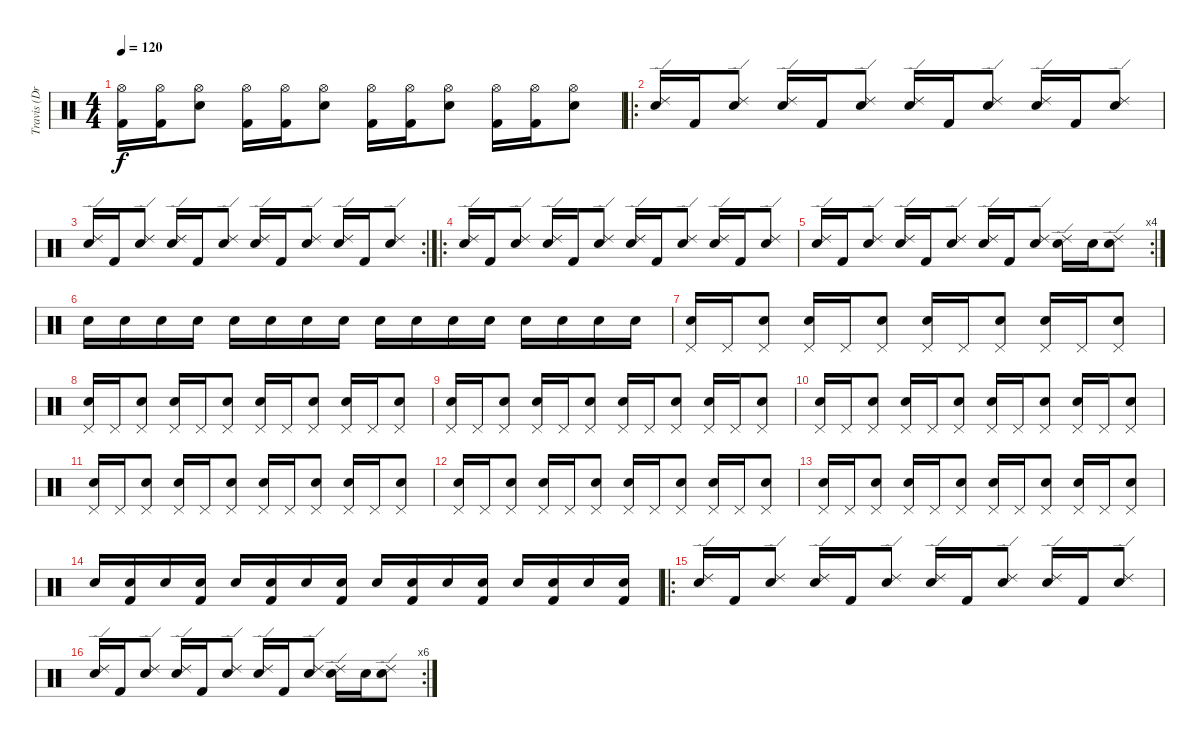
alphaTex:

\track ("Travis (Drum)" "Travis (Dr") {instrument percussion}
\staff {score}
\articulation defaults
\ts (4 4)
\tempo 120
\clef neutral
\ks c
("Hi-Hat (open)" "Kick (hit) 2").16{dy f} ("Hi-Hat (open)" "Kick (hit) 2").16 ("Hi-Hat (open)" "Electric Snare (hit)").8 ("Hi-Hat (open)" "Kick (hit) 2").16 ("Hi-Hat (open)" "Kick (hit) 2").16 ("Hi-Hat (open)" "Electric Snare (hit)").8 ("Hi-Hat (open)" "Kick (hit) 2").16 ("Hi-Hat (open)" "Kick (hit) 2").16 ("Hi-Hat (open)" "Electric Snare (hit)").8 ("Hi-Hat (open)" "Kick (hit) 2").16 ("Hi-Hat (open)" "Kick (hit) 2").16 ("Hi-Hat (open)" "Electric Snare (hit)").8 |
\ro
("Ride (edge) 2" "Electric Snare (hit)").16 "Kick (hit) 2".16 ("Ride (edge) 2" "Electric Snare (hit)").8 ("Ride (edge) 2" "Electric Snare (hit)").16 "Kick (hit) 2".16 ("Ride (edge) 2" "Electric Snare (hit)").8 ("Ride (edge) 2" "Electric Snare (hit)").16 "Kick (hit) 2".16 ("Ride (edge) 2" "Electric Snare (hit)").8 ("Ride (edge) 2" "Electric Snare (hit)").16 "Kick (hit) 2".16 ("Ride (edge) 2" "Electric Snare (hit)").8 |
\rc 2
("Ride (edge) 2" "Electric Snare (hit)").16 "Kick (hit) 2".16 ("Ride (edge) 2" "Electric Snare (hit)").8 ("Ride (edge) 2" "Electric Snare (hit)").16 "Kick (hit) 2".16 ("Ride (edge) 2" "Electric Snare (hit)").8 ("Ride (edge) 2" "Electric Snare (hit)").16 "Kick (hit) 2".16 ("Ride (edge) 2" "Electric Snare (hit)").8 ("Ride (edge) 2" "Electric Snare (hit)").16 "Kick (hit) 2".16 ("Ride (edge) 2" "Electric Snare (hit)").8 |
\ro
("Ride (edge) 2" "Electric Snare (hit)").16 "Kick (hit) 2".16 ("Ride (edge) 2" "Electric Snare (hit)").8 ("Ride (edge) 2" "Electric Snare (hit)").16 "Kick (hit) 2".16 ("Ride (edge) 2" "Electric Snare (hit)").8 ("Ride (edge) 2" "Electric Snare (hit)").16 "Kick (hit) 2".16 ("Ride (edge) 2" "Electric Snare (hit)").8 ("Ride (edge) 2" "Electric Snare (hit)").16 "Kick (hit) 2".16 ("Ride (edge) 2" "Electric Snare (hit)").8 |
\rc 4
("Ride (edge) 2" "Electric Snare (hit)").16 "Kick (hit) 2".16 ("Ride (edge) 2" "Electric Snare (hit)").8 ("Ride (edge) 2" "Electric Snare (hit)").16 "Kick (hit) 2".16 ("Ride (edge) 2" "Electric Snare (hit)").8 ("Ride (edge) 2" "Electric Snare (hit)").16 "Kick (hit) 2".16 ("Ride (edge) 2" "Electric Snare (hit)").8 ("Ride (edge) 2" "Electric Snare (hit)").16 "Electric Snare (hit)".16 ("Ride (edge) 2" "Electric Snare (hit)").8 |
"Electric Snare (hit)".16 "Electric Snare (hit)".16 "Electric Snare (hit)".16 "Electric Snare (hit)".16 "Electric Snare (hit)".16 "Electric Snare (hit)".16 "Electric Snare (hit)".16 "Electric Snare (hit)".16 "Electric Snare (hit)".16 "Electric Snare (hit)".16 "Electric Snare (hit)".16 "Electric Snare (hit)".16 "Electric Snare (hit)".16 "Electric Snare (hit)".16 "Electric Snare (hit)".16 "Electric Snare (hit)".16 |
("Pedal Hi-Hat (hit)" "Electric Snare (hit)").16 "Pedal Hi-Hat (hit)".16 ("Pedal Hi-Hat (hit)" "Electric Snare (hit)").8 ("Pedal Hi-Hat (hit)" "Electric Snare (hit)").16 "Pedal Hi-Hat (hit)".16 ("Pedal Hi-Hat (hit)" "Electric Snare (hit)").8 ("Pedal Hi-Hat (hit)" "Electric Snare (hit)").16 "Pedal Hi-Hat (hit)".16 ("Pedal Hi-Hat (hit)" "Electric Snare (hit)").8 ("Pedal Hi-Hat (hit)" "Electric Snare (hit)").16 "Pedal Hi-Hat (hit)".16 ("Pedal Hi-Hat (hit)" "Electric Snare (hit)").8 |
("Pedal Hi-Hat (hit)" "Electric Snare (hit)").16 "Pedal Hi-Hat (hit)".16 ("Pedal Hi-Hat (hit)" "Electric Snare (hit)").8 ("Pedal Hi-Hat (hit)" "Electric Snare (hit)").16 "Pedal Hi-Hat (hit)".16 ("Pedal Hi-Hat (hit)" "Electric Snare (hit)").8 ("Pedal Hi-Hat (hit)" "Electric Snare (hit)").16 "Pedal Hi-Hat (hit)".16 ("Pedal Hi-Hat (hit)" "Electric Snare (hit)").8 ("Pedal Hi-Hat (hit)" "Electric Snare (hit)").16 "Pedal Hi-Hat (hit)".16 ("Pedal Hi-Hat (hit)" "Electric Snare (hit)").8 |
("Pedal Hi-Hat (hit)" "Electric Snare (hit)").16 "Pedal Hi-Hat (hit)".16 ("Pedal Hi-Hat (hit)" "Electric Snare (hit)").8 ("Pedal Hi-Hat (hit)" "Electric Snare (hit)").16 "Pedal Hi-Hat (hit)".16 ("Pedal Hi-Hat (hit)" "Electric Snare (hit)").8 ("Pedal Hi-Hat (hit)" "Electric Snare (hit)").16 "Pedal Hi-Hat (hit)".16 ("Pedal Hi-Hat (hit)" "Electric Snare (hit)").8 ("Pedal Hi-Hat (hit)" "Electric Snare (hit)").16 "Pedal Hi-Hat (hit)".16 ("Pedal Hi-Hat (hit)" "Electric Snare (hit)").8 |
("Pedal Hi-Hat (hit)" "Electric Snare (hit)").16 "Pedal Hi-Hat (hit)".16 ("Pedal Hi-Hat (hit)" "Electric Snare (hit)").8 ("Pedal Hi-Hat (hit)" "Electric Snare (hit)").16 "Pedal Hi-Hat (hit)".16 ("Pedal Hi-Hat (hit)" "Electric Snare (hit)").8 ("Pedal Hi-Hat (hit)" "Electric Snare (hit)").16 "Pedal Hi-Hat (hit)".16 ("Pedal Hi-Hat (hit)" "Electric Snare (hit)").8 ("Pedal Hi-Hat (hit)" "Electric Snare (hit)").16 "Pedal Hi-Hat (hit)".16 ("Pedal Hi-Hat (hit)" "Electric Snare (hit)").8 |
("Pedal Hi-Hat (hit)" "Electric Snare (hit)").16 "Pedal Hi-Hat (hit)".16 ("Pedal Hi-Hat (hit)" "Electric Snare (hit)").8 ("Pedal Hi-Hat (hit)" "Electric Snare (hit)").16 "Pedal Hi-Hat (hit)".16 ("Pedal Hi-Hat (hit)" "Electric Snare (hit)").8 ("Pedal Hi-Hat (hit)" "Electric Snare (hit)").16 "Pedal Hi-Hat (hit)".16 ("Pedal Hi-Hat (hit)" "Electric Snare (hit)").8 ("Pedal Hi-Hat (hit)" "Electric Snare (hit)").16 "Pedal Hi-Hat (hit)".16 ("Pedal Hi-Hat (hit)" "Electric Snare (hit)").8 |
("Pedal Hi-Hat (hit)" "Electric Snare (hit)").16 "Pedal Hi-Hat (hit)".16 ("Pedal Hi-Hat (hit)" "Electric Snare (hit)").8 ("Pedal Hi-Hat (hit)" "Electric Snare (hit)").16 "Pedal Hi-Hat (hit)".16 ("Pedal Hi-Hat (hit)" "Electric Snare (hit)").8 ("Pedal Hi-Hat (hit)" "Electric Snare (hit)").16 "Pedal Hi-Hat (hit)".16 ("Pedal Hi-Hat (hit)" "Electric Snare (hit)").8 ("Pedal Hi-Hat (hit)" "Electric Snare (hit)").16 "Pedal Hi-Hat (hit)".16 ("Pedal Hi-Hat (hit)" "Electric Snare (hit)").8 |
("Pedal Hi-Hat (hit)" "Electric Snare (hit)").16 "Pedal Hi-Hat (hit)".16 ("Pedal Hi-Hat (hit)" "Electric Snare (hit)").8 ("Pedal Hi-Hat (hit)" "Electric Snare (hit)").16 "Pedal Hi-Hat (hit)".16 ("Pedal Hi-Hat (hit)" "Electric Snare (hit)").8 ("Pedal Hi-Hat (hit)" "Electric Snare (hit)").16 "Pedal Hi-Hat (hit)".16 ("Pedal Hi-Hat (hit)" "Electric Snare (hit)").8 ("Pedal Hi-Hat (hit)" "Electric Snare (hit)").16 "Pedal Hi-Hat (hit)".16 ("Pedal Hi-Hat (hit)" "Electric Snare (hit)").8 |
"Electric Snare (hit)".16 ("Kick (hit) 2" "Electric Snare (hit)").16 "Electric Snare (hit)".16 ("Kick (hit) 2" "Electric Snare (hit)").16 "Electric Snare (hit)".16 ("Kick (hit) 2" "Electric Snare (hit)").16 "Electric Snare (hit)".16 ("Kick (hit) 2" "Electric Snare (hit)").16 "Electric Snare (hit)".16 ("Kick (hit) 2" "Electric Snare (hit)").16 "Electric Snare (hit)".16 ("Kick (hit) 2" "Electric Snare (hit)").16 "Electric Snare (hit)".16 ("Kick (hit) 2" "Electric Snare (hit)").16 "Electric Snare (hit)".16 ("Kick (hit) 2" "Electric Snare (hit)").16 |
\ro
("Ride (edge) 2" "Electric Snare (hit)").16 "Kick (hit) 2".16 ("Ride (edge) 2" "Electric Snare (hit)").8 ("Ride (edge) 2" "Electric Snare (hit)").16 "Kick (hit) 2".16 ("Ride (edge) 2" "Electric Snare (hit)").8 ("Ride (edge) 2" "Electric Snare (hit)").16 "Kick (hit) 2".16 ("Ride (edge) 2" "Electric Snare (hit)").8 ("Ride (edge) 2" "Electric Snare (hit)").16 "Kick (hit) 2".16 ("Ride (edge) 2" "Electric Snare (hit)").8 |
\rc 6
("Ride (edge) 2" "Electric Snare (hit)").16 "Kick (hit) 2".16 ("Ride (edge) 2" "Electric Snare (hit)").8 ("Ride (edge) 2" "Electric Snare (hit)").16 "Kick (hit) 2".16 ("Ride (edge) 2" "Electric Snare (hit)").8 ("Ride (edge) 2" "Electric Snare (hit)").16 "Kick (hit) 2".16 ("Ride (edge) 2" "Electric Snare (hit)").8 ("Ride (edge) 2" "Electric Snare (hit)").16 "Electric Snare (hit)".16 ("Ride (edge) 2" "Electric Snare (hit)").8
